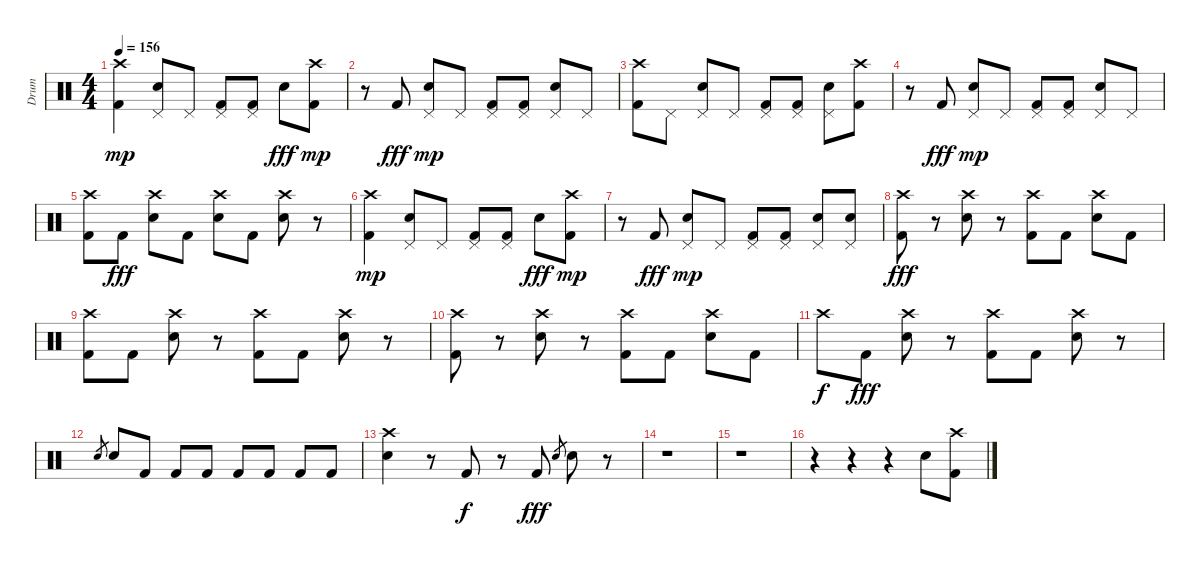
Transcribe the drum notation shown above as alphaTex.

\track ("Drum" "Drum") {instrument percussion}
\staff {score}
\articulation defaults
\ts (4 4)
\tempo 156
\clef neutral
\ks c
("Kick (hit) 2" "Crash high (hit)").4{dy mp} ("Electric Snare (hit)" "Pedal Hi-Hat (hit)").8 "Pedal Hi-Hat (hit)".8 ("Kick (hit) 2" "Pedal Hi-Hat (hit)").8 ("Kick (hit) 2" "Pedal Hi-Hat (hit)").8 "Electric Snare (hit)".8{dy fff} ("Kick (hit) 2" "Crash high (hit)").8{dy mp} |
r.8 "Kick (hit) 2".8{dy fff} ("Electric Snare (hit)" "Pedal Hi-Hat (hit)").8{dy mp} "Pedal Hi-Hat (hit)".8 ("Kick (hit) 2" "Pedal Hi-Hat (hit)").8 ("Kick (hit) 2" "Pedal Hi-Hat (hit)").8 ("Electric Snare (hit)" "Pedal Hi-Hat (hit)").8 "Pedal Hi-Hat (hit)".8 |
("Kick (hit) 2" "Crash high (hit)").8 "Pedal Hi-Hat (hit)".8 ("Electric Snare (hit)" "Pedal Hi-Hat (hit)").8 "Pedal Hi-Hat (hit)".8 ("Kick (hit) 2" "Pedal Hi-Hat (hit)").8 ("Kick (hit) 2" "Pedal Hi-Hat (hit)").8 ("Electric Snare (hit)" "Pedal Hi-Hat (hit)").8 ("Kick (hit) 2" "Crash high (hit)").8 |
r.8 "Kick (hit) 2".8{dy fff} ("Electric Snare (hit)" "Pedal Hi-Hat (hit)").8{dy mp} "Pedal Hi-Hat (hit)".8 ("Kick (hit) 2" "Pedal Hi-Hat (hit)").8 ("Kick (hit) 2" "Pedal Hi-Hat (hit)").8 ("Electric Snare (hit)" "Pedal Hi-Hat (hit)").8 "Pedal Hi-Hat (hit)".8 |
("Kick (hit) 2" "Crash high (hit)").8 "Kick (hit) 2".8{dy fff} ("Electric Snare (hit)" "Crash high (hit)").8 "Kick (hit) 2".8 ("Electric Snare (hit)" "Crash high (hit)").8 "Kick (hit) 2".8 ("Electric Snare (hit)" "Crash high (hit)").8 r.8 |
("Kick (hit) 2" "Crash high (hit)").4{dy mp} ("Electric Snare (hit)" "Pedal Hi-Hat (hit)").8 "Pedal Hi-Hat (hit)".8 ("Kick (hit) 2" "Pedal Hi-Hat (hit)").8 ("Kick (hit) 2" "Pedal Hi-Hat (hit)").8 "Electric Snare (hit)".8{dy fff} ("Kick (hit) 2" "Crash high (hit)").8{dy mp} |
r.8 "Kick (hit) 2".8{dy fff} ("Electric Snare (hit)" "Pedal Hi-Hat (hit)").8{dy mp} "Pedal Hi-Hat (hit)".8 ("Kick (hit) 2" "Pedal Hi-Hat (hit)").8 ("Kick (hit) 2" "Pedal Hi-Hat (hit)").8 ("Electric Snare (hit)" "Pedal Hi-Hat (hit)").8 ("Electric Snare (hit)"{tr (40 32)} "Pedal Hi-Hat (hit)").8 |
("Kick (hit) 2" "Crash high (hit)").8{dy fff} r.8 ("Electric Snare (hit)" "Crash high (hit)").8 r.8 ("Kick (hit) 2" "Crash high (hit)").8 "Kick (hit) 2".8 ("Electric Snare (hit)" "Crash high (hit)").8 "Kick (hit) 2".8 |
("Kick (hit) 2" "Crash high (hit)").8 "Kick (hit) 2".8 ("Electric Snare (hit)" "Crash high (hit)").8 r.8 ("Kick (hit) 2" "Crash high (hit)").8 "Kick (hit) 2".8 ("Electric Snare (hit)" "Crash high (hit)").8 r.8 |
("Kick (hit) 2" "Crash high (hit)").8 r.8 ("Electric Snare (hit)" "Crash high (hit)").8 r.8 ("Kick (hit) 2" "Crash high (hit)").8 "Kick (hit) 2".8 ("Electric Snare (hit)" "Crash high (hit)").8 "Kick (hit) 2".8 |
"Crash high (hit)".8{dy f} "Kick (hit) 2".8{dy fff} ("Electric Snare (hit)" "Crash high (hit)").8 r.8 ("Kick (hit) 2" "Crash high (hit)").8 "Kick (hit) 2".8 ("Electric Snare (hit)" "Crash high (hit)").8 r.8 |
"Electric Snare (hit)".8{gr} "Electric Snare (hit)".8 "Kick (hit) 2".8 "Kick (hit) 2".8 "Kick (hit) 2".8 "Kick (hit) 2".8 "Kick (hit) 2".8 "Kick (hit) 2".8 "Kick (hit) 2".8 |
("Electric Snare (hit)" "Crash high (hit)").4 r.8 "Kick (hit) 2".8{dy f} r.8 "Kick (hit) 2".8{dy fff} "Electric Snare (hit)".8{gr} "Electric Snare (hit)".8 r.8 |
r.1 |
r.1 |
r.4 r.4 r.4 "Electric Snare (hit)".8 ("Kick (hit) 2" "Crash high (hit)").8
